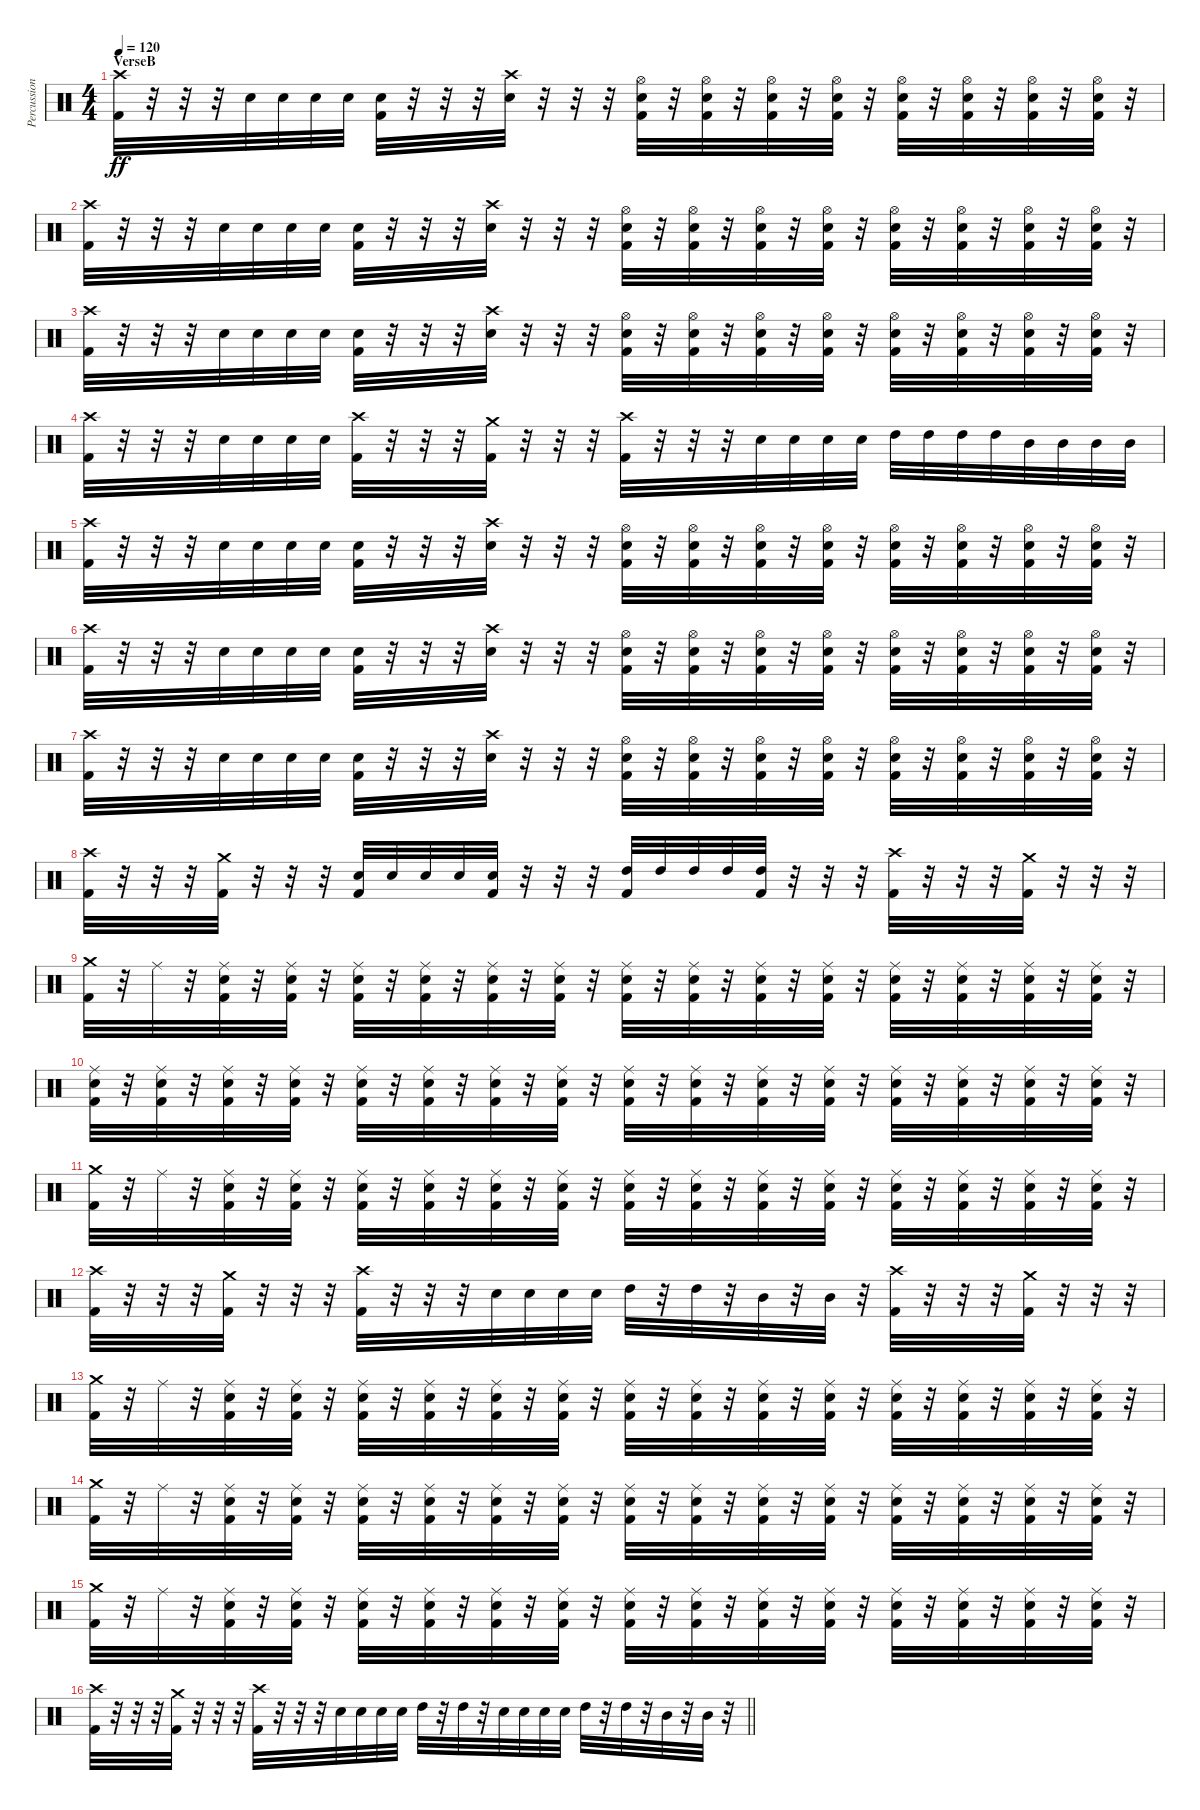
\track ("Percussion" "Percussion") {instrument percussion}
\staff {score}
\articulation defaults
\ts (4 4)
\section ("" "VerseB")
\tempo 120
\clef neutral
\ks c
("Crash high (hit)" "Kick (hit) 2").32{dy ff} r.32 r.32 r.32 "Snare (hit) 2".32 "Snare (hit) 2".32 "Snare (hit) 2".32 "Snare (hit) 2".32 ("Snare (hit) 2" "Kick (hit) 2").32 r.32 r.32 r.32 ("Crash high (hit)" "Snare (hit) 2").32 r.32 r.32 r.32 ("Hi-Hat (open)" "Snare (hit) 2" "Kick (hit) 2").32 r.32 ("Hi-Hat (open)" "Snare (hit) 2" "Kick (hit) 2").32 r.32 ("Hi-Hat (open)" "Snare (hit) 2" "Kick (hit) 2").32 r.32 ("Hi-Hat (open)" "Snare (hit) 2" "Kick (hit) 2").32 r.32 ("Hi-Hat (open)" "Snare (hit) 2" "Kick (hit) 2").32 r.32 ("Hi-Hat (open)" "Snare (hit) 2" "Kick (hit) 2").32 r.32 ("Hi-Hat (open)" "Snare (hit) 2" "Kick (hit) 2").32 r.32 ("Hi-Hat (open)" "Snare (hit) 2" "Kick (hit) 2").32 r.32 |
("Crash high (hit)" "Kick (hit) 2").32 r.32 r.32 r.32 "Snare (hit) 2".32 "Snare (hit) 2".32 "Snare (hit) 2".32 "Snare (hit) 2".32 ("Snare (hit) 2" "Kick (hit) 2").32 r.32 r.32 r.32 ("Crash high (hit)" "Snare (hit) 2").32 r.32 r.32 r.32 ("Hi-Hat (open)" "Snare (hit) 2" "Kick (hit) 2").32 r.32 ("Hi-Hat (open)" "Snare (hit) 2" "Kick (hit) 2").32 r.32 ("Hi-Hat (open)" "Snare (hit) 2" "Kick (hit) 2").32 r.32 ("Hi-Hat (open)" "Snare (hit) 2" "Kick (hit) 2").32 r.32 ("Hi-Hat (open)" "Snare (hit) 2" "Kick (hit) 2").32 r.32 ("Hi-Hat (open)" "Snare (hit) 2" "Kick (hit) 2").32 r.32 ("Hi-Hat (open)" "Snare (hit) 2" "Kick (hit) 2").32 r.32 ("Hi-Hat (open)" "Snare (hit) 2" "Kick (hit) 2").32 r.32 |
("Crash high (hit)" "Kick (hit) 2").32 r.32 r.32 r.32 "Snare (hit) 2".32 "Snare (hit) 2".32 "Snare (hit) 2".32 "Snare (hit) 2".32 ("Snare (hit) 2" "Kick (hit) 2").32 r.32 r.32 r.32 ("Crash high (hit)" "Snare (hit) 2").32 r.32 r.32 r.32 ("Hi-Hat (open)" "Snare (hit) 2" "Kick (hit) 2").32 r.32 ("Hi-Hat (open)" "Snare (hit) 2" "Kick (hit) 2").32 r.32 ("Hi-Hat (open)" "Snare (hit) 2" "Kick (hit) 2").32 r.32 ("Hi-Hat (open)" "Snare (hit) 2" "Kick (hit) 2").32 r.32 ("Hi-Hat (open)" "Snare (hit) 2" "Kick (hit) 2").32 r.32 ("Hi-Hat (open)" "Snare (hit) 2" "Kick (hit) 2").32 r.32 ("Hi-Hat (open)" "Snare (hit) 2" "Kick (hit) 2").32 r.32 ("Hi-Hat (open)" "Snare (hit) 2" "Kick (hit) 2").32 r.32 |
("Crash high (hit)" "Kick (hit) 2").32 r.32 r.32 r.32 "Snare (hit) 2".32 "Snare (hit) 2".32 "Snare (hit) 2".32 "Snare (hit) 2".32 ("Crash high (hit)" "Kick (hit) 2").32 r.32 r.32 r.32 ("Crash medium (hit)" "Kick (hit) 2").32 r.32 r.32 r.32 ("Crash high (hit)" "Kick (hit) 2").32 r.32 r.32 r.32 "Snare (hit) 2".32 "Snare (hit) 2".32 "Snare (hit) 2".32 "Snare (hit) 2".32 "High Tom (hit)".32 "High Tom (hit)".32 "High Tom (hit)".32 "High Tom (hit)".32 "Mid Tom (hit)".32 "Mid Tom (hit)".32 "Mid Tom (hit)".32 "Mid Tom (hit)".32 |
("Crash high (hit)" "Kick (hit) 2").32 r.32 r.32 r.32 "Snare (hit) 2".32 "Snare (hit) 2".32 "Snare (hit) 2".32 "Snare (hit) 2".32 ("Snare (hit) 2" "Kick (hit) 2").32 r.32 r.32 r.32 ("Crash high (hit)" "Snare (hit) 2").32 r.32 r.32 r.32 ("Hi-Hat (open)" "Snare (hit) 2" "Kick (hit) 2").32 r.32 ("Hi-Hat (open)" "Snare (hit) 2" "Kick (hit) 2").32 r.32 ("Hi-Hat (open)" "Snare (hit) 2" "Kick (hit) 2").32 r.32 ("Hi-Hat (open)" "Snare (hit) 2" "Kick (hit) 2").32 r.32 ("Hi-Hat (open)" "Snare (hit) 2" "Kick (hit) 2").32 r.32 ("Hi-Hat (open)" "Snare (hit) 2" "Kick (hit) 2").32 r.32 ("Hi-Hat (open)" "Snare (hit) 2" "Kick (hit) 2").32 r.32 ("Hi-Hat (open)" "Snare (hit) 2" "Kick (hit) 2").32 r.32 |
("Crash high (hit)" "Kick (hit) 2").32 r.32 r.32 r.32 "Snare (hit) 2".32 "Snare (hit) 2".32 "Snare (hit) 2".32 "Snare (hit) 2".32 ("Snare (hit) 2" "Kick (hit) 2").32 r.32 r.32 r.32 ("Crash high (hit)" "Snare (hit) 2").32 r.32 r.32 r.32 ("Hi-Hat (open)" "Snare (hit) 2" "Kick (hit) 2").32 r.32 ("Hi-Hat (open)" "Snare (hit) 2" "Kick (hit) 2").32 r.32 ("Hi-Hat (open)" "Snare (hit) 2" "Kick (hit) 2").32 r.32 ("Hi-Hat (open)" "Snare (hit) 2" "Kick (hit) 2").32 r.32 ("Hi-Hat (open)" "Snare (hit) 2" "Kick (hit) 2").32 r.32 ("Hi-Hat (open)" "Snare (hit) 2" "Kick (hit) 2").32 r.32 ("Hi-Hat (open)" "Snare (hit) 2" "Kick (hit) 2").32 r.32 ("Hi-Hat (open)" "Snare (hit) 2" "Kick (hit) 2").32 r.32 |
("Crash high (hit)" "Kick (hit) 2").32 r.32 r.32 r.32 "Snare (hit) 2".32 "Snare (hit) 2".32 "Snare (hit) 2".32 "Snare (hit) 2".32 ("Snare (hit) 2" "Kick (hit) 2").32 r.32 r.32 r.32 ("Crash high (hit)" "Snare (hit) 2").32 r.32 r.32 r.32 ("Hi-Hat (open)" "Snare (hit) 2" "Kick (hit) 2").32 r.32 ("Hi-Hat (open)" "Snare (hit) 2" "Kick (hit) 2").32 r.32 ("Hi-Hat (open)" "Snare (hit) 2" "Kick (hit) 2").32 r.32 ("Hi-Hat (open)" "Snare (hit) 2" "Kick (hit) 2").32 r.32 ("Hi-Hat (open)" "Snare (hit) 2" "Kick (hit) 2").32 r.32 ("Hi-Hat (open)" "Snare (hit) 2" "Kick (hit) 2").32 r.32 ("Hi-Hat (open)" "Snare (hit) 2" "Kick (hit) 2").32 r.32 ("Hi-Hat (open)" "Snare (hit) 2" "Kick (hit) 2").32 r.32 |
("Crash high (hit)" "Kick (hit) 2").32 r.32 r.32 r.32 ("Crash medium (hit)" "Kick (hit) 2").32 r.32 r.32 r.32 ("Snare (hit) 2" "Kick (hit) 2").32 "Snare (hit) 2".32 "Snare (hit) 2".32 "Snare (hit) 2".32 ("Snare (hit) 2" "Kick (hit) 2").32 r.32 r.32 r.32 ("High Tom (hit)" "Kick (hit) 2").32 "High Tom (hit)".32 "High Tom (hit)".32 "High Tom (hit)".32 ("High Tom (hit)" "Kick (hit) 2").32 r.32 r.32 r.32 ("Crash high (hit)" "Kick (hit) 2").32 r.32 r.32 r.32 ("Crash medium (hit)" "Kick (hit) 2").32 r.32 r.32 r.32 |
("Crash medium (hit)" "Kick (hit) 2").32 r.32 "Ride (middle)".32 r.32 ("Ride (middle)" "Snare (hit) 2" "Kick (hit) 2").32 r.32 ("Ride (middle)" "Snare (hit) 2" "Kick (hit) 2").32 r.32 ("Ride (middle)" "Snare (hit) 2" "Kick (hit) 2").32 r.32 ("Ride (middle)" "Snare (hit) 2" "Kick (hit) 2").32 r.32 ("Ride (middle)" "Snare (hit) 2" "Kick (hit) 2").32 r.32 ("Ride (middle)" "Snare (hit) 2" "Kick (hit) 2").32 r.32 ("Ride (middle)" "Snare (hit) 2" "Kick (hit) 2").32 r.32 ("Ride (middle)" "Snare (hit) 2" "Kick (hit) 2").32 r.32 ("Ride (middle)" "Snare (hit) 2" "Kick (hit) 2").32 r.32 ("Ride (middle)" "Snare (hit) 2" "Kick (hit) 2").32 r.32 ("Ride (middle)" "Snare (hit) 2" "Kick (hit) 2").32 r.32 ("Ride (middle)" "Snare (hit) 2" "Kick (hit) 2").32 r.32 ("Ride (middle)" "Snare (hit) 2" "Kick (hit) 2").32 r.32 ("Ride (middle)" "Snare (hit) 2" "Kick (hit) 2").32 r.32 |
("Ride (middle)" "Snare (hit) 2" "Kick (hit) 2").32 r.32 ("Ride (middle)" "Snare (hit) 2" "Kick (hit) 2").32 r.32 ("Ride (middle)" "Snare (hit) 2" "Kick (hit) 2").32 r.32 ("Ride (middle)" "Snare (hit) 2" "Kick (hit) 2").32 r.32 ("Ride (middle)" "Snare (hit) 2" "Kick (hit) 2").32 r.32 ("Ride (middle)" "Snare (hit) 2" "Kick (hit) 2").32 r.32 ("Ride (middle)" "Snare (hit) 2" "Kick (hit) 2").32 r.32 ("Ride (middle)" "Snare (hit) 2" "Kick (hit) 2").32 r.32 ("Ride (middle)" "Snare (hit) 2" "Kick (hit) 2").32 r.32 ("Ride (middle)" "Snare (hit) 2" "Kick (hit) 2").32 r.32 ("Ride (middle)" "Snare (hit) 2" "Kick (hit) 2").32 r.32 ("Ride (middle)" "Snare (hit) 2" "Kick (hit) 2").32 r.32 ("Ride (middle)" "Snare (hit) 2" "Kick (hit) 2").32 r.32 ("Ride (middle)" "Snare (hit) 2" "Kick (hit) 2").32 r.32 ("Ride (middle)" "Snare (hit) 2" "Kick (hit) 2").32 r.32 ("Ride (middle)" "Snare (hit) 2" "Kick (hit) 2").32 r.32 |
("Crash medium (hit)" "Kick (hit) 2").32 r.32 "Ride (middle)".32 r.32 ("Ride (middle)" "Snare (hit) 2" "Kick (hit) 2").32 r.32 ("Ride (middle)" "Snare (hit) 2" "Kick (hit) 2").32 r.32 ("Ride (middle)" "Snare (hit) 2" "Kick (hit) 2").32 r.32 ("Ride (middle)" "Snare (hit) 2" "Kick (hit) 2").32 r.32 ("Ride (middle)" "Snare (hit) 2" "Kick (hit) 2").32 r.32 ("Ride (middle)" "Snare (hit) 2" "Kick (hit) 2").32 r.32 ("Ride (middle)" "Snare (hit) 2" "Kick (hit) 2").32 r.32 ("Ride (middle)" "Snare (hit) 2" "Kick (hit) 2").32 r.32 ("Ride (middle)" "Snare (hit) 2" "Kick (hit) 2").32 r.32 ("Ride (middle)" "Snare (hit) 2" "Kick (hit) 2").32 r.32 ("Ride (middle)" "Snare (hit) 2" "Kick (hit) 2").32 r.32 ("Ride (middle)" "Snare (hit) 2" "Kick (hit) 2").32 r.32 ("Ride (middle)" "Snare (hit) 2" "Kick (hit) 2").32 r.32 ("Ride (middle)" "Snare (hit) 2" "Kick (hit) 2").32 r.32 |
("Crash high (hit)" "Kick (hit) 2").32 r.32 r.32 r.32 ("Crash medium (hit)" "Kick (hit) 2").32 r.32 r.32 r.32 ("Crash high (hit)" "Kick (hit) 2").32 r.32 r.32 r.32 "Snare (hit) 2".32 "Snare (hit) 2".32 "Snare (hit) 2".32 "Snare (hit) 2".32 "High Tom (hit)".32 r.32 "High Tom (hit)".32 r.32 "Mid Tom (hit)".32 r.32 "Mid Tom (hit)".32 r.32 ("Crash high (hit)" "Kick (hit) 2").32 r.32 r.32 r.32 ("Crash medium (hit)" "Kick (hit) 2").32 r.32 r.32 r.32 |
("Crash medium (hit)" "Kick (hit) 2").32 r.32 "Ride (middle)".32 r.32 ("Ride (middle)" "Snare (hit) 2" "Kick (hit) 2").32 r.32 ("Ride (middle)" "Snare (hit) 2" "Kick (hit) 2").32 r.32 ("Ride (middle)" "Snare (hit) 2" "Kick (hit) 2").32 r.32 ("Ride (middle)" "Snare (hit) 2" "Kick (hit) 2").32 r.32 ("Ride (middle)" "Snare (hit) 2" "Kick (hit) 2").32 r.32 ("Ride (middle)" "Snare (hit) 2" "Kick (hit) 2").32 r.32 ("Ride (middle)" "Snare (hit) 2" "Kick (hit) 2").32 r.32 ("Ride (middle)" "Snare (hit) 2" "Kick (hit) 2").32 r.32 ("Ride (middle)" "Snare (hit) 2" "Kick (hit) 2").32 r.32 ("Ride (middle)" "Snare (hit) 2" "Kick (hit) 2").32 r.32 ("Ride (middle)" "Snare (hit) 2" "Kick (hit) 2").32 r.32 ("Ride (middle)" "Snare (hit) 2" "Kick (hit) 2").32 r.32 ("Ride (middle)" "Snare (hit) 2" "Kick (hit) 2").32 r.32 ("Ride (middle)" "Snare (hit) 2" "Kick (hit) 2").32 r.32 |
("Crash medium (hit)" "Kick (hit) 2").32 r.32 "Ride (middle)".32 r.32 ("Ride (middle)" "Snare (hit) 2" "Kick (hit) 2").32 r.32 ("Ride (middle)" "Snare (hit) 2" "Kick (hit) 2").32 r.32 ("Ride (middle)" "Snare (hit) 2" "Kick (hit) 2").32 r.32 ("Ride (middle)" "Snare (hit) 2" "Kick (hit) 2").32 r.32 ("Ride (middle)" "Snare (hit) 2" "Kick (hit) 2").32 r.32 ("Ride (middle)" "Snare (hit) 2" "Kick (hit) 2").32 r.32 ("Ride (middle)" "Snare (hit) 2" "Kick (hit) 2").32 r.32 ("Ride (middle)" "Snare (hit) 2" "Kick (hit) 2").32 r.32 ("Ride (middle)" "Snare (hit) 2" "Kick (hit) 2").32 r.32 ("Ride (middle)" "Snare (hit) 2" "Kick (hit) 2").32 r.32 ("Ride (middle)" "Snare (hit) 2" "Kick (hit) 2").32 r.32 ("Ride (middle)" "Snare (hit) 2" "Kick (hit) 2").32 r.32 ("Ride (middle)" "Snare (hit) 2" "Kick (hit) 2").32 r.32 ("Ride (middle)" "Snare (hit) 2" "Kick (hit) 2").32 r.32 |
("Crash medium (hit)" "Kick (hit) 2").32 r.32 "Ride (middle)".32 r.32 ("Ride (middle)" "Snare (hit) 2" "Kick (hit) 2").32 r.32 ("Ride (middle)" "Snare (hit) 2" "Kick (hit) 2").32 r.32 ("Ride (middle)" "Snare (hit) 2" "Kick (hit) 2").32 r.32 ("Ride (middle)" "Snare (hit) 2" "Kick (hit) 2").32 r.32 ("Ride (middle)" "Snare (hit) 2" "Kick (hit) 2").32 r.32 ("Ride (middle)" "Snare (hit) 2" "Kick (hit) 2").32 r.32 ("Ride (middle)" "Snare (hit) 2" "Kick (hit) 2").32 r.32 ("Ride (middle)" "Snare (hit) 2" "Kick (hit) 2").32 r.32 ("Ride (middle)" "Snare (hit) 2" "Kick (hit) 2").32 r.32 ("Ride (middle)" "Snare (hit) 2" "Kick (hit) 2").32 r.32 ("Ride (middle)" "Snare (hit) 2" "Kick (hit) 2").32 r.32 ("Ride (middle)" "Snare (hit) 2" "Kick (hit) 2").32 r.32 ("Ride (middle)" "Snare (hit) 2" "Kick (hit) 2").32 r.32 ("Ride (middle)" "Snare (hit) 2" "Kick (hit) 2").32 r.32 |
\barLineRight lightlight
("Crash high (hit)" "Kick (hit) 2").32 r.32 r.32 r.32 ("Crash medium (hit)" "Kick (hit) 2").32 r.32 r.32 r.32 ("Crash high (hit)" "Kick (hit) 2").32 r.32 r.32 r.32 "Snare (hit) 2".32 "Snare (hit) 2".32 "Snare (hit) 2".32 "Snare (hit) 2".32 "High Tom (hit)".32 r.32 "High Tom (hit)".32 r.32 "Snare (hit) 2".32 "Snare (hit) 2".32 "Snare (hit) 2".32 "Snare (hit) 2".32 "High Tom (hit)".32 r.32 "High Tom (hit)".32 r.32 "Mid Tom (hit)".32 r.32 "Mid Tom (hit)".32 r.32
